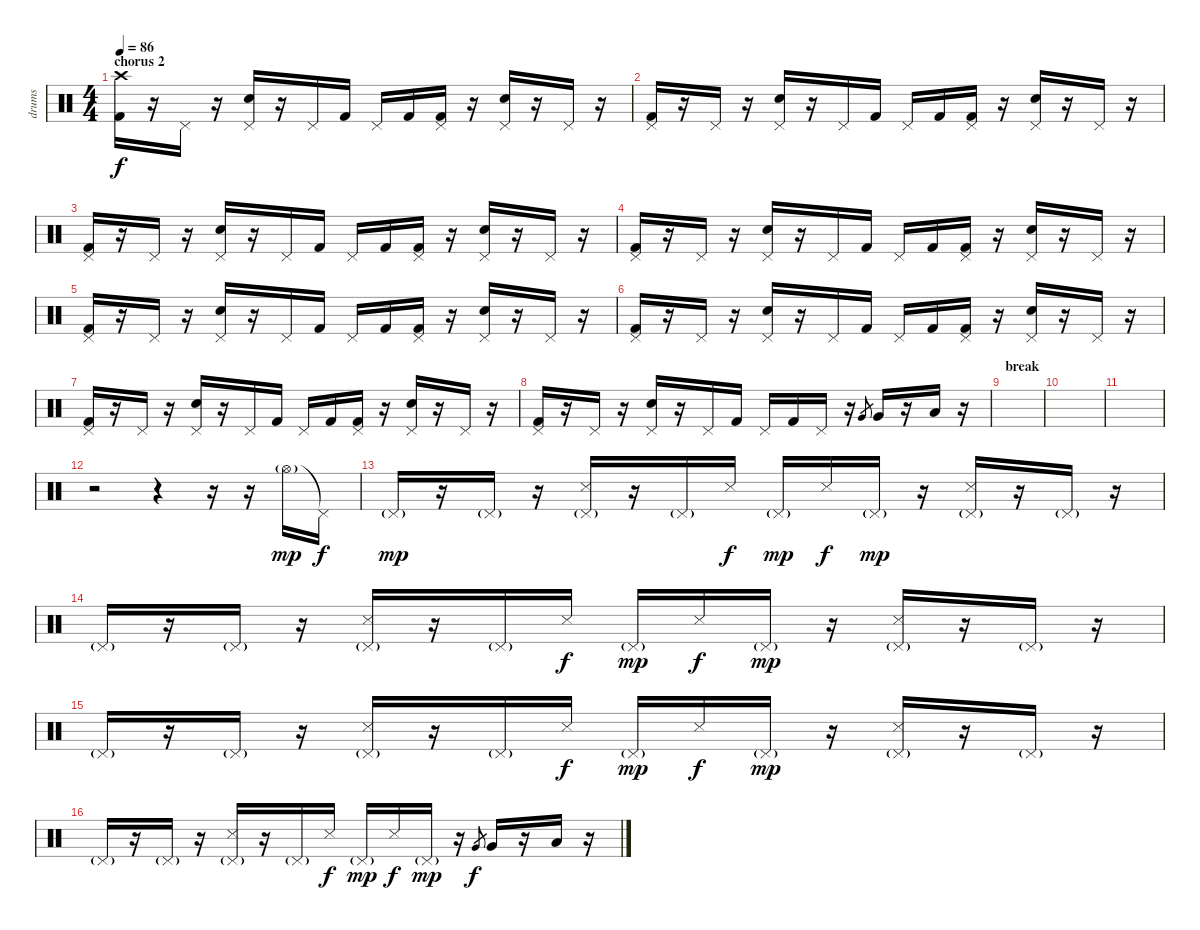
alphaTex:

\track ("drums" "drums") {instrument percussion}
\staff {score}
\articulation defaults
\ts (4 4)
\section ("" "chorus 2")
\tempo 86
\clef neutral
\ks c
("Kick (hit) 2" "Crash high (hit)").16{dy f} r.16 "Pedal Hi-Hat (hit)".16 r.16 ("Electric Snare (hit)" "Pedal Hi-Hat (hit)").16 r.16 "Pedal Hi-Hat (hit)".16 "Kick (hit) 2".16 "Pedal Hi-Hat (hit)".16 "Kick (hit) 2".16 ("Kick (hit) 2" "Pedal Hi-Hat (hit)").16 r.16 ("Electric Snare (hit)" "Pedal Hi-Hat (hit)").16 r.16 "Pedal Hi-Hat (hit)".16 r.16 |
("Kick (hit) 2" "Pedal Hi-Hat (hit)").16 r.16 "Pedal Hi-Hat (hit)".16 r.16 ("Electric Snare (hit)" "Pedal Hi-Hat (hit)").16 r.16 "Pedal Hi-Hat (hit)".16 "Kick (hit) 2".16 "Pedal Hi-Hat (hit)".16 "Kick (hit) 2".16 ("Kick (hit) 2" "Pedal Hi-Hat (hit)").16 r.16 ("Electric Snare (hit)" "Pedal Hi-Hat (hit)").16 r.16 "Pedal Hi-Hat (hit)".16 r.16 |
("Kick (hit) 2" "Pedal Hi-Hat (hit)").16 r.16 "Pedal Hi-Hat (hit)".16 r.16 ("Electric Snare (hit)" "Pedal Hi-Hat (hit)").16 r.16 "Pedal Hi-Hat (hit)".16 "Kick (hit) 2".16 "Pedal Hi-Hat (hit)".16 "Kick (hit) 2".16 ("Kick (hit) 2" "Pedal Hi-Hat (hit)").16 r.16 ("Electric Snare (hit)" "Pedal Hi-Hat (hit)").16 r.16 "Pedal Hi-Hat (hit)".16 r.16 |
("Kick (hit) 2" "Pedal Hi-Hat (hit)").16 r.16 "Pedal Hi-Hat (hit)".16 r.16 ("Electric Snare (hit)" "Pedal Hi-Hat (hit)").16 r.16 "Pedal Hi-Hat (hit)".16 "Kick (hit) 2".16 "Pedal Hi-Hat (hit)".16 "Kick (hit) 2".16 ("Kick (hit) 2" "Pedal Hi-Hat (hit)").16 r.16 ("Electric Snare (hit)" "Pedal Hi-Hat (hit)").16 r.16 "Pedal Hi-Hat (hit)".16 r.16 |
("Kick (hit) 2" "Pedal Hi-Hat (hit)").16 r.16 "Pedal Hi-Hat (hit)".16 r.16 ("Electric Snare (hit)" "Pedal Hi-Hat (hit)").16 r.16 "Pedal Hi-Hat (hit)".16 "Kick (hit) 2".16 "Pedal Hi-Hat (hit)".16 "Kick (hit) 2".16 ("Kick (hit) 2" "Pedal Hi-Hat (hit)").16 r.16 ("Electric Snare (hit)" "Pedal Hi-Hat (hit)").16 r.16 "Pedal Hi-Hat (hit)".16 r.16 |
("Kick (hit) 2" "Pedal Hi-Hat (hit)").16 r.16 "Pedal Hi-Hat (hit)".16 r.16 ("Electric Snare (hit)" "Pedal Hi-Hat (hit)").16 r.16 "Pedal Hi-Hat (hit)".16 "Kick (hit) 2".16 "Pedal Hi-Hat (hit)".16 "Kick (hit) 2".16 ("Kick (hit) 2" "Pedal Hi-Hat (hit)").16 r.16 ("Electric Snare (hit)" "Pedal Hi-Hat (hit)").16 r.16 "Pedal Hi-Hat (hit)".16 r.16 |
("Kick (hit) 2" "Pedal Hi-Hat (hit)").16 r.16 "Pedal Hi-Hat (hit)".16 r.16 ("Electric Snare (hit)" "Pedal Hi-Hat (hit)").16 r.16 "Pedal Hi-Hat (hit)".16 "Kick (hit) 2".16 "Pedal Hi-Hat (hit)".16 "Kick (hit) 2".16 ("Kick (hit) 2" "Pedal Hi-Hat (hit)").16 r.16 ("Electric Snare (hit)" "Pedal Hi-Hat (hit)").16 r.16 "Pedal Hi-Hat (hit)".16 r.16 |
("Kick (hit) 2" "Pedal Hi-Hat (hit)").16 r.16 "Pedal Hi-Hat (hit)".16 r.16 ("Electric Snare (hit)" "Pedal Hi-Hat (hit)").16 r.16 "Pedal Hi-Hat (hit)".16 "Kick (hit) 2".16 "Pedal Hi-Hat (hit)".16 "Kick (hit) 2".16 "Pedal Hi-Hat (hit)".16 r.16 "Very Low Tom (hit)".8{gr} "Very Low Tom (hit)".16 r.16 "Low Tom (hit)".16 r.16 |
\section ("" "break")
|
|
|
r.2 r.4 r.16 r.16 "Hi-Hat (open)"{g}.16{dy mp} "Pedal Hi-Hat (hit)"{t}.16{dy f} |
"Pedal Hi-Hat (hit)"{g}.16{dy mp} r.16 "Pedal Hi-Hat (hit)"{g}.16 r.16 ("Snare (side stick) 3" "Pedal Hi-Hat (hit)"{g}).16 r.16 "Pedal Hi-Hat (hit)"{g}.16 "Snare (side stick) 3".16{dy f} "Pedal Hi-Hat (hit)"{g}.16{dy mp} "Snare (side stick) 3".16{dy f} "Pedal Hi-Hat (hit)"{g}.16{dy mp} r.16 ("Snare (side stick) 3" "Pedal Hi-Hat (hit)"{g}).16 r.16 "Pedal Hi-Hat (hit)"{g}.16 r.16 |
"Pedal Hi-Hat (hit)"{g}.16 r.16 "Pedal Hi-Hat (hit)"{g}.16 r.16 ("Snare (side stick) 3" "Pedal Hi-Hat (hit)"{g}).16 r.16 "Pedal Hi-Hat (hit)"{g}.16 "Snare (side stick) 3".16{dy f} "Pedal Hi-Hat (hit)"{g}.16{dy mp} "Snare (side stick) 3".16{dy f} "Pedal Hi-Hat (hit)"{g}.16{dy mp} r.16 ("Snare (side stick) 3" "Pedal Hi-Hat (hit)"{g}).16 r.16 "Pedal Hi-Hat (hit)"{g}.16 r.16 |
"Pedal Hi-Hat (hit)"{g}.16 r.16 "Pedal Hi-Hat (hit)"{g}.16 r.16 ("Snare (side stick) 3" "Pedal Hi-Hat (hit)"{g}).16 r.16 "Pedal Hi-Hat (hit)"{g}.16 "Snare (side stick) 3".16{dy f} "Pedal Hi-Hat (hit)"{g}.16{dy mp} "Snare (side stick) 3".16{dy f} "Pedal Hi-Hat (hit)"{g}.16{dy mp} r.16 ("Snare (side stick) 3" "Pedal Hi-Hat (hit)"{g}).16 r.16 "Pedal Hi-Hat (hit)"{g}.16 r.16 |
"Pedal Hi-Hat (hit)"{g}.16 r.16 "Pedal Hi-Hat (hit)"{g}.16 r.16 ("Snare (side stick) 3" "Pedal Hi-Hat (hit)"{g}).16 r.16 "Pedal Hi-Hat (hit)"{g}.16 "Snare (side stick) 3".16{dy f} "Pedal Hi-Hat (hit)"{g}.16{dy mp} "Snare (side stick) 3".16{dy f} "Pedal Hi-Hat (hit)"{g}.16{dy mp} r.16 "Very Low Tom (hit)".8{gr dy f} "Very Low Tom (hit)".16 r.16 "Low Tom (hit)".16 r.16
